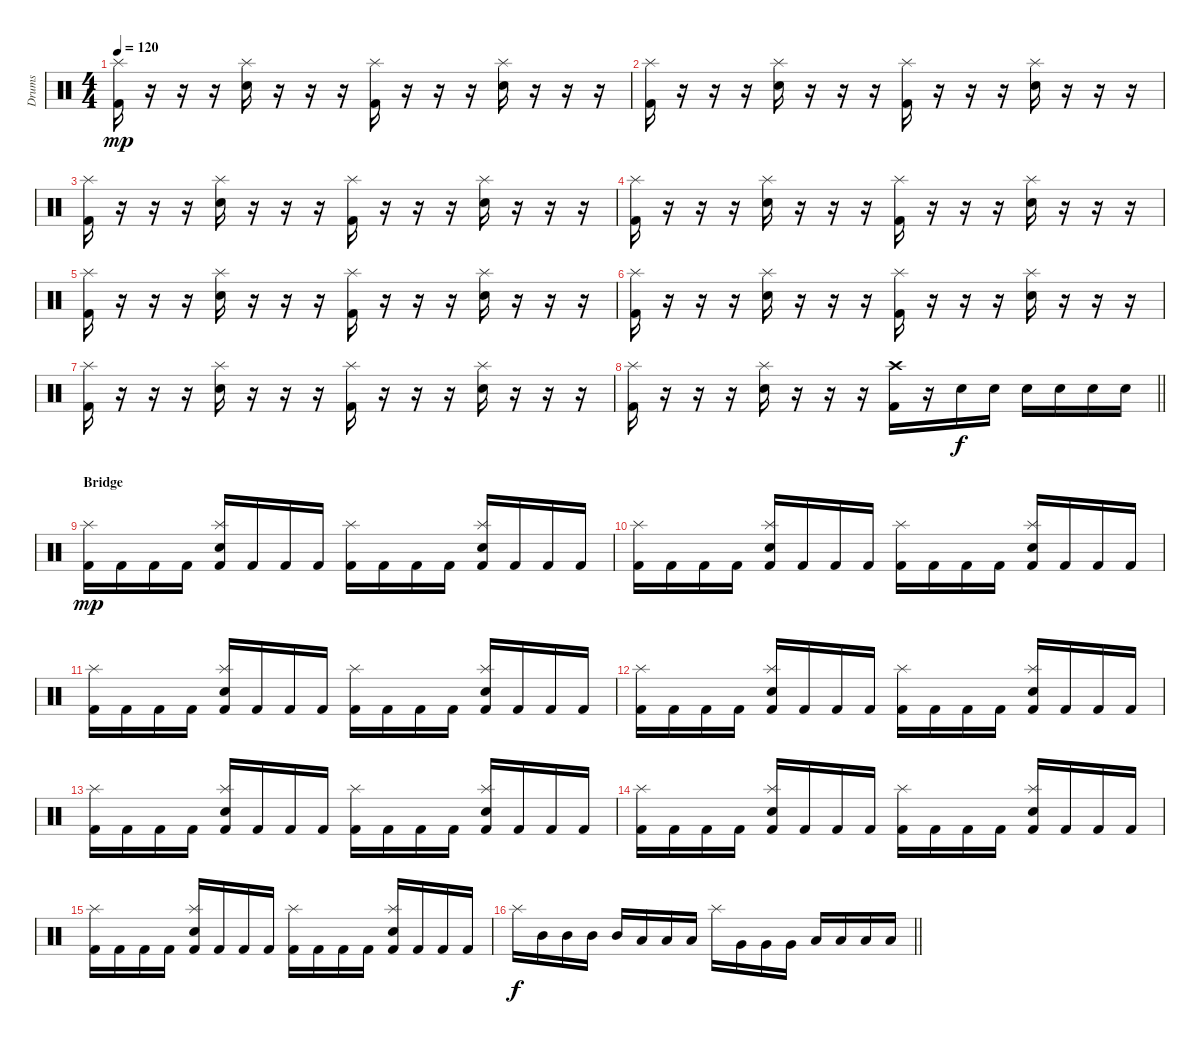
\track ("Drums" "Drums") {instrument percussion}
\staff {score}
\articulation defaults
\ts (4 4)
\tempo 120
\clef neutral
\ks c
("Kick (hit) 2" "Splash (hit)").16{dy mp} r.16 r.16 r.16 ("Splash (hit)" "Snare (hit) 2").16 r.16 r.16 r.16 ("Kick (hit) 2" "Splash (hit)").16 r.16 r.16 r.16 ("Splash (hit)" "Snare (hit) 2").16 r.16 r.16 r.16 |
("Kick (hit) 2" "Splash (hit)").16 r.16 r.16 r.16 ("Splash (hit)" "Snare (hit) 2").16 r.16 r.16 r.16 ("Kick (hit) 2" "Splash (hit)").16 r.16 r.16 r.16 ("Splash (hit)" "Snare (hit) 2").16 r.16 r.16 r.16 |
("Kick (hit) 2" "Splash (hit)").16 r.16 r.16 r.16 ("Splash (hit)" "Snare (hit) 2").16 r.16 r.16 r.16 ("Kick (hit) 2" "Splash (hit)").16 r.16 r.16 r.16 ("Splash (hit)" "Snare (hit) 2").16 r.16 r.16 r.16 |
("Kick (hit) 2" "Splash (hit)").16 r.16 r.16 r.16 ("Splash (hit)" "Snare (hit) 2").16 r.16 r.16 r.16 ("Kick (hit) 2" "Splash (hit)").16 r.16 r.16 r.16 ("Splash (hit)" "Snare (hit) 2").16 r.16 r.16 r.16 |
("Kick (hit) 2" "Splash (hit)").16 r.16 r.16 r.16 ("Splash (hit)" "Snare (hit) 2").16 r.16 r.16 r.16 ("Kick (hit) 2" "Splash (hit)").16 r.16 r.16 r.16 ("Splash (hit)" "Snare (hit) 2").16 r.16 r.16 r.16 |
("Kick (hit) 2" "Splash (hit)").16 r.16 r.16 r.16 ("Splash (hit)" "Snare (hit) 2").16 r.16 r.16 r.16 ("Kick (hit) 2" "Splash (hit)").16 r.16 r.16 r.16 ("Splash (hit)" "Snare (hit) 2").16 r.16 r.16 r.16 |
("Kick (hit) 2" "Splash (hit)").16 r.16 r.16 r.16 ("Splash (hit)" "Snare (hit) 2").16 r.16 r.16 r.16 ("Kick (hit) 2" "Splash (hit)").16 r.16 r.16 r.16 ("Splash (hit)" "Snare (hit) 2").16 r.16 r.16 r.16 |
\barLineRight lightlight
("Kick (hit) 2" "Splash (hit)").16 r.16 r.16 r.16 ("Splash (hit)" "Snare (hit) 2").16 r.16 r.16 r.16 ("Kick (hit) 2" "Crash high (hit)").16 r.16 "Snare (hit) 2".16{dy f} "Snare (hit) 2".16 "Snare (hit) 2".16 "Snare (hit) 2".16 "Snare (hit) 2".16 "Snare (hit) 2".16 |
\section ("" "Bridge")
("Kick (hit) 2" "Splash (hit)").16{dy mp} "Kick (hit) 2".16 "Kick (hit) 2".16 "Kick (hit) 2".16 ("Kick (hit) 2" "Splash (hit)" "Snare (hit) 2").16 "Kick (hit) 2".16 "Kick (hit) 2".16 "Kick (hit) 2".16 ("Kick (hit) 2" "Splash (hit)").16 "Kick (hit) 2".16 "Kick (hit) 2".16 "Kick (hit) 2".16 ("Kick (hit) 2" "Splash (hit)" "Snare (hit) 2").16 "Kick (hit) 2".16 "Kick (hit) 2".16 "Kick (hit) 2".16 |
("Kick (hit) 2" "Splash (hit)").16 "Kick (hit) 2".16 "Kick (hit) 2".16 "Kick (hit) 2".16 ("Kick (hit) 2" "Splash (hit)" "Snare (hit) 2").16 "Kick (hit) 2".16 "Kick (hit) 2".16 "Kick (hit) 2".16 ("Kick (hit) 2" "Splash (hit)").16 "Kick (hit) 2".16 "Kick (hit) 2".16 "Kick (hit) 2".16 ("Kick (hit) 2" "Splash (hit)" "Snare (hit) 2").16 "Kick (hit) 2".16 "Kick (hit) 2".16 "Kick (hit) 2".16 |
("Kick (hit) 2" "Splash (hit)").16 "Kick (hit) 2".16 "Kick (hit) 2".16 "Kick (hit) 2".16 ("Kick (hit) 2" "Splash (hit)" "Snare (hit) 2").16 "Kick (hit) 2".16 "Kick (hit) 2".16 "Kick (hit) 2".16 ("Kick (hit) 2" "Splash (hit)").16 "Kick (hit) 2".16 "Kick (hit) 2".16 "Kick (hit) 2".16 ("Kick (hit) 2" "Splash (hit)" "Snare (hit) 2").16 "Kick (hit) 2".16 "Kick (hit) 2".16 "Kick (hit) 2".16 |
("Kick (hit) 2" "Splash (hit)").16 "Kick (hit) 2".16 "Kick (hit) 2".16 "Kick (hit) 2".16 ("Kick (hit) 2" "Splash (hit)" "Snare (hit) 2").16 "Kick (hit) 2".16 "Kick (hit) 2".16 "Kick (hit) 2".16 ("Kick (hit) 2" "Splash (hit)").16 "Kick (hit) 2".16 "Kick (hit) 2".16 "Kick (hit) 2".16 ("Kick (hit) 2" "Splash (hit)" "Snare (hit) 2").16 "Kick (hit) 2".16 "Kick (hit) 2".16 "Kick (hit) 2".16 |
("Kick (hit) 2" "Splash (hit)").16 "Kick (hit) 2".16 "Kick (hit) 2".16 "Kick (hit) 2".16 ("Kick (hit) 2" "Splash (hit)" "Snare (hit) 2").16 "Kick (hit) 2".16 "Kick (hit) 2".16 "Kick (hit) 2".16 ("Kick (hit) 2" "Splash (hit)").16 "Kick (hit) 2".16 "Kick (hit) 2".16 "Kick (hit) 2".16 ("Kick (hit) 2" "Splash (hit)" "Snare (hit) 2").16 "Kick (hit) 2".16 "Kick (hit) 2".16 "Kick (hit) 2".16 |
("Kick (hit) 2" "Splash (hit)").16 "Kick (hit) 2".16 "Kick (hit) 2".16 "Kick (hit) 2".16 ("Kick (hit) 2" "Splash (hit)" "Snare (hit) 2").16 "Kick (hit) 2".16 "Kick (hit) 2".16 "Kick (hit) 2".16 ("Kick (hit) 2" "Splash (hit)").16 "Kick (hit) 2".16 "Kick (hit) 2".16 "Kick (hit) 2".16 ("Kick (hit) 2" "Splash (hit)" "Snare (hit) 2").16 "Kick (hit) 2".16 "Kick (hit) 2".16 "Kick (hit) 2".16 |
("Kick (hit) 2" "Splash (hit)").16 "Kick (hit) 2".16 "Kick (hit) 2".16 "Kick (hit) 2".16 ("Kick (hit) 2" "Splash (hit)" "Snare (hit) 2").16 "Kick (hit) 2".16 "Kick (hit) 2".16 "Kick (hit) 2".16 ("Kick (hit) 2" "Splash (hit)").16 "Kick (hit) 2".16 "Kick (hit) 2".16 "Kick (hit) 2".16 ("Kick (hit) 2" "Splash (hit)" "Snare (hit) 2").16 "Kick (hit) 2".16 "Kick (hit) 2".16 "Kick (hit) 2".16 |
\barLineRight lightlight "Splash (hit)".16{dy f} "Mid Tom (hit)".16 "Mid Tom (hit)".16 "Mid Tom (hit)".16 "Mid Tom (hit)".16 "Low Tom (hit)".16 "Low Tom (hit)".16 "Low Tom (hit)".16 "Splash (hit)".16 "Very Low Tom (hit)".16 "Very Low Tom (hit)".16 "Very Low Tom (hit)".16 "Low Floor Tom (hit)".16 "Low Floor Tom (hit)".16 "Low Floor Tom (hit)".16 "Low Floor Tom (hit)".16
